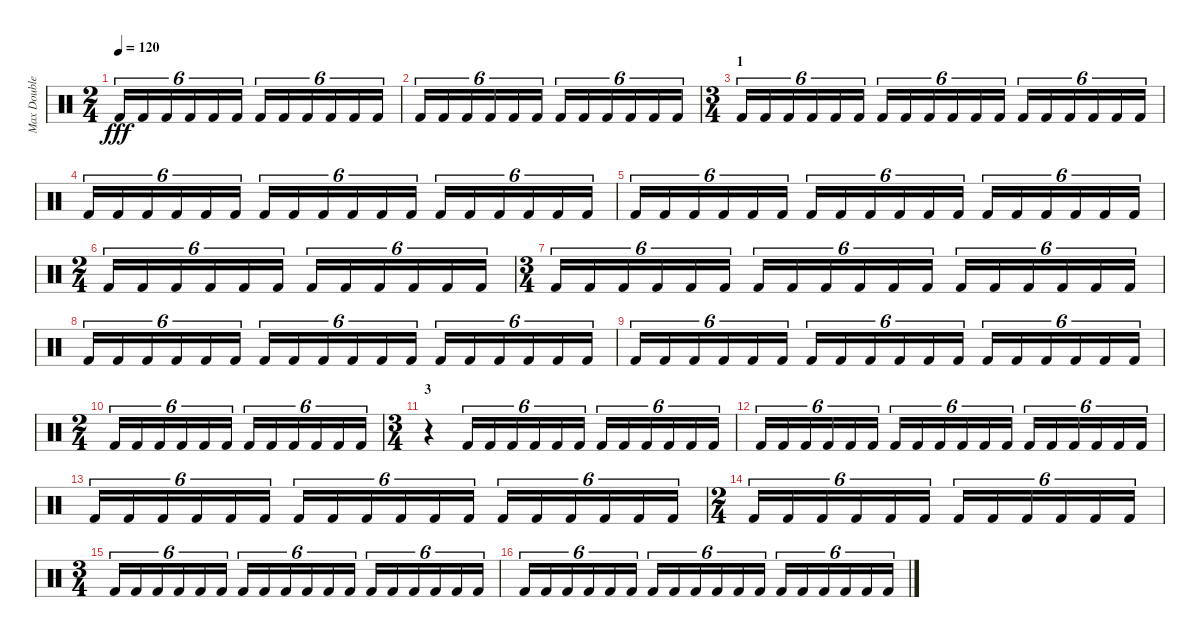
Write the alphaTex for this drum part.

\track ("Max Double Pedal" "Max Double") {instrument percussion}
\staff {score}
\articulation defaults
\ts (2 4)
\tempo 120
\clef neutral
\ks c "Kick (hit) 2".16{tu (6 4) dy fff} "Kick (hit) 2".16{tu (6 4)} "Kick (hit) 2".16{tu (6 4)} "Kick (hit) 2".16{tu (6 4)} "Kick (hit) 2".16{tu (6 4)} "Kick (hit) 2".16{tu (6 4)} "Kick (hit) 2".16{tu (6 4)} "Kick (hit) 2".16{tu (6 4)} "Kick (hit) 2".16{tu (6 4)} "Kick (hit) 2".16{tu (6 4)} "Kick (hit) 2".16{tu (6 4)} "Kick (hit) 2".16{tu (6 4)}
|
"Kick (hit) 2".16{tu (6 4)} "Kick (hit) 2".16{tu (6 4)} "Kick (hit) 2".16{tu (6 4)} "Kick (hit) 2".16{tu (6 4)} "Kick (hit) 2".16{tu (6 4)} "Kick (hit) 2".16{tu (6 4)} "Kick (hit) 2".16{tu (6 4)} "Kick (hit) 2".16{tu (6 4)} "Kick (hit) 2".16{tu (6 4)} "Kick (hit) 2".16{tu (6 4)} "Kick (hit) 2".16{tu (6 4)} "Kick (hit) 2".16{tu (6 4)} |
\ts (3 4)
\section ("" "1")
"Kick (hit) 2".16{tu (6 4)} "Kick (hit) 2".16{tu (6 4)} "Kick (hit) 2".16{tu (6 4)} "Kick (hit) 2".16{tu (6 4)} "Kick (hit) 2".16{tu (6 4)} "Kick (hit) 2".16{tu (6 4)} "Kick (hit) 2".16{tu (6 4)} "Kick (hit) 2".16{tu (6 4)} "Kick (hit) 2".16{tu (6 4)} "Kick (hit) 2".16{tu (6 4)} "Kick (hit) 2".16{tu (6 4)} "Kick (hit) 2".16{tu (6 4)} "Kick (hit) 2".16{tu (6 4)} "Kick (hit) 2".16{tu (6 4)} "Kick (hit) 2".16{tu (6 4)} "Kick (hit) 2".16{tu (6 4)} "Kick (hit) 2".16{tu (6 4)} "Kick (hit) 2".16{tu (6 4)} |
"Kick (hit) 2".16{tu (6 4)} "Kick (hit) 2".16{tu (6 4)} "Kick (hit) 2".16{tu (6 4)} "Kick (hit) 2".16{tu (6 4)} "Kick (hit) 2".16{tu (6 4)} "Kick (hit) 2".16{tu (6 4)} "Kick (hit) 2".16{tu (6 4)} "Kick (hit) 2".16{tu (6 4)} "Kick (hit) 2".16{tu (6 4)} "Kick (hit) 2".16{tu (6 4)} "Kick (hit) 2".16{tu (6 4)} "Kick (hit) 2".16{tu (6 4)} "Kick (hit) 2".16{tu (6 4)} "Kick (hit) 2".16{tu (6 4)} "Kick (hit) 2".16{tu (6 4)} "Kick (hit) 2".16{tu (6 4)} "Kick (hit) 2".16{tu (6 4)} "Kick (hit) 2".16{tu (6 4)} |
"Kick (hit) 2".16{tu (6 4)} "Kick (hit) 2".16{tu (6 4)} "Kick (hit) 2".16{tu (6 4)} "Kick (hit) 2".16{tu (6 4)} "Kick (hit) 2".16{tu (6 4)} "Kick (hit) 2".16{tu (6 4)} "Kick (hit) 2".16{tu (6 4)} "Kick (hit) 2".16{tu (6 4)} "Kick (hit) 2".16{tu (6 4)} "Kick (hit) 2".16{tu (6 4)} "Kick (hit) 2".16{tu (6 4)} "Kick (hit) 2".16{tu (6 4)} "Kick (hit) 2".16{tu (6 4)} "Kick (hit) 2".16{tu (6 4)} "Kick (hit) 2".16{tu (6 4)} "Kick (hit) 2".16{tu (6 4)} "Kick (hit) 2".16{tu (6 4)} "Kick (hit) 2".16{tu (6 4)} |
\ts (2 4)
"Kick (hit) 2".16{tu (6 4)} "Kick (hit) 2".16{tu (6 4)} "Kick (hit) 2".16{tu (6 4)} "Kick (hit) 2".16{tu (6 4)} "Kick (hit) 2".16{tu (6 4)} "Kick (hit) 2".16{tu (6 4)} "Kick (hit) 2".16{tu (6 4)} "Kick (hit) 2".16{tu (6 4)} "Kick (hit) 2".16{tu (6 4)} "Kick (hit) 2".16{tu (6 4)} "Kick (hit) 2".16{tu (6 4)} "Kick (hit) 2".16{tu (6 4)} |
\ts (3 4)
"Kick (hit) 2".16{tu (6 4)} "Kick (hit) 2".16{tu (6 4)} "Kick (hit) 2".16{tu (6 4)} "Kick (hit) 2".16{tu (6 4)} "Kick (hit) 2".16{tu (6 4)} "Kick (hit) 2".16{tu (6 4)} "Kick (hit) 2".16{tu (6 4)} "Kick (hit) 2".16{tu (6 4)} "Kick (hit) 2".16{tu (6 4)} "Kick (hit) 2".16{tu (6 4)} "Kick (hit) 2".16{tu (6 4)} "Kick (hit) 2".16{tu (6 4)} "Kick (hit) 2".16{tu (6 4)} "Kick (hit) 2".16{tu (6 4)} "Kick (hit) 2".16{tu (6 4)} "Kick (hit) 2".16{tu (6 4)} "Kick (hit) 2".16{tu (6 4)} "Kick (hit) 2".16{tu (6 4)} |
"Kick (hit) 2".16{tu (6 4)} "Kick (hit) 2".16{tu (6 4)} "Kick (hit) 2".16{tu (6 4)} "Kick (hit) 2".16{tu (6 4)} "Kick (hit) 2".16{tu (6 4)} "Kick (hit) 2".16{tu (6 4)} "Kick (hit) 2".16{tu (6 4)} "Kick (hit) 2".16{tu (6 4)} "Kick (hit) 2".16{tu (6 4)} "Kick (hit) 2".16{tu (6 4)} "Kick (hit) 2".16{tu (6 4)} "Kick (hit) 2".16{tu (6 4)} "Kick (hit) 2".16{tu (6 4)} "Kick (hit) 2".16{tu (6 4)} "Kick (hit) 2".16{tu (6 4)} "Kick (hit) 2".16{tu (6 4)} "Kick (hit) 2".16{tu (6 4)} "Kick (hit) 2".16{tu (6 4)} |
"Kick (hit) 2".16{tu (6 4)} "Kick (hit) 2".16{tu (6 4)} "Kick (hit) 2".16{tu (6 4)} "Kick (hit) 2".16{tu (6 4)} "Kick (hit) 2".16{tu (6 4)} "Kick (hit) 2".16{tu (6 4)} "Kick (hit) 2".16{tu (6 4)} "Kick (hit) 2".16{tu (6 4)} "Kick (hit) 2".16{tu (6 4)} "Kick (hit) 2".16{tu (6 4)} "Kick (hit) 2".16{tu (6 4)} "Kick (hit) 2".16{tu (6 4)} "Kick (hit) 2".16{tu (6 4)} "Kick (hit) 2".16{tu (6 4)} "Kick (hit) 2".16{tu (6 4)} "Kick (hit) 2".16{tu (6 4)} "Kick (hit) 2".16{tu (6 4)} "Kick (hit) 2".16{tu (6 4)} |
\ts (2 4)
"Kick (hit) 2".16{tu (6 4)} "Kick (hit) 2".16{tu (6 4)} "Kick (hit) 2".16{tu (6 4)} "Kick (hit) 2".16{tu (6 4)} "Kick (hit) 2".16{tu (6 4)} "Kick (hit) 2".16{tu (6 4)} "Kick (hit) 2".16{tu (6 4)} "Kick (hit) 2".16{tu (6 4)} "Kick (hit) 2".16{tu (6 4)} "Kick (hit) 2".16{tu (6 4)} "Kick (hit) 2".16{tu (6 4)} "Kick (hit) 2".16{tu (6 4)} |
\ts (3 4)
\section ("" "3")
r.4 "Kick (hit) 2".16{tu (6 4)} "Kick (hit) 2".16{tu (6 4)} "Kick (hit) 2".16{tu (6 4)} "Kick (hit) 2".16{tu (6 4)} "Kick (hit) 2".16{tu (6 4)} "Kick (hit) 2".16{tu (6 4)} "Kick (hit) 2".16{tu (6 4)} "Kick (hit) 2".16{tu (6 4)} "Kick (hit) 2".16{tu (6 4)} "Kick (hit) 2".16{tu (6 4)} "Kick (hit) 2".16{tu (6 4)} "Kick (hit) 2".16{tu (6 4)} |
"Kick (hit) 2".16{tu (6 4)} "Kick (hit) 2".16{tu (6 4)} "Kick (hit) 2".16{tu (6 4)} "Kick (hit) 2".16{tu (6 4)} "Kick (hit) 2".16{tu (6 4)} "Kick (hit) 2".16{tu (6 4)} "Kick (hit) 2".16{tu (6 4)} "Kick (hit) 2".16{tu (6 4)} "Kick (hit) 2".16{tu (6 4)} "Kick (hit) 2".16{tu (6 4)} "Kick (hit) 2".16{tu (6 4)} "Kick (hit) 2".16{tu (6 4)} "Kick (hit) 2".16{tu (6 4)} "Kick (hit) 2".16{tu (6 4)} "Kick (hit) 2".16{tu (6 4)} "Kick (hit) 2".16{tu (6 4)} "Kick (hit) 2".16{tu (6 4)} "Kick (hit) 2".16{tu (6 4)} |
"Kick (hit) 2".16{tu (6 4)} "Kick (hit) 2".16{tu (6 4)} "Kick (hit) 2".16{tu (6 4)} "Kick (hit) 2".16{tu (6 4)} "Kick (hit) 2".16{tu (6 4)} "Kick (hit) 2".16{tu (6 4)} "Kick (hit) 2".16{tu (6 4)} "Kick (hit) 2".16{tu (6 4)} "Kick (hit) 2".16{tu (6 4)} "Kick (hit) 2".16{tu (6 4)} "Kick (hit) 2".16{tu (6 4)} "Kick (hit) 2".16{tu (6 4)} "Kick (hit) 2".16{tu (6 4)} "Kick (hit) 2".16{tu (6 4)} "Kick (hit) 2".16{tu (6 4)} "Kick (hit) 2".16{tu (6 4)} "Kick (hit) 2".16{tu (6 4)} "Kick (hit) 2".16{tu (6 4)} |
\ts (2 4)
"Kick (hit) 2".16{tu (6 4)} "Kick (hit) 2".16{tu (6 4)} "Kick (hit) 2".16{tu (6 4)} "Kick (hit) 2".16{tu (6 4)} "Kick (hit) 2".16{tu (6 4)} "Kick (hit) 2".16{tu (6 4)} "Kick (hit) 2".16{tu (6 4)} "Kick (hit) 2".16{tu (6 4)} "Kick (hit) 2".16{tu (6 4)} "Kick (hit) 2".16{tu (6 4)} "Kick (hit) 2".16{tu (6 4)} "Kick (hit) 2".16{tu (6 4)} |
\ts (3 4)
"Kick (hit) 2".16{tu (6 4)} "Kick (hit) 2".16{tu (6 4)} "Kick (hit) 2".16{tu (6 4)} "Kick (hit) 2".16{tu (6 4)} "Kick (hit) 2".16{tu (6 4)} "Kick (hit) 2".16{tu (6 4)} "Kick (hit) 2".16{tu (6 4)} "Kick (hit) 2".16{tu (6 4)} "Kick (hit) 2".16{tu (6 4)} "Kick (hit) 2".16{tu (6 4)} "Kick (hit) 2".16{tu (6 4)} "Kick (hit) 2".16{tu (6 4)} "Kick (hit) 2".16{tu (6 4)} "Kick (hit) 2".16{tu (6 4)} "Kick (hit) 2".16{tu (6 4)} "Kick (hit) 2".16{tu (6 4)} "Kick (hit) 2".16{tu (6 4)} "Kick (hit) 2".16{tu (6 4)} |
"Kick (hit) 2".16{tu (6 4)} "Kick (hit) 2".16{tu (6 4)} "Kick (hit) 2".16{tu (6 4)} "Kick (hit) 2".16{tu (6 4)} "Kick (hit) 2".16{tu (6 4)} "Kick (hit) 2".16{tu (6 4)} "Kick (hit) 2".16{tu (6 4)} "Kick (hit) 2".16{tu (6 4)} "Kick (hit) 2".16{tu (6 4)} "Kick (hit) 2".16{tu (6 4)} "Kick (hit) 2".16{tu (6 4)} "Kick (hit) 2".16{tu (6 4)} "Kick (hit) 2".16{tu (6 4)} "Kick (hit) 2".16{tu (6 4)} "Kick (hit) 2".16{tu (6 4)} "Kick (hit) 2".16{tu (6 4)} "Kick (hit) 2".16{tu (6 4)} "Kick (hit) 2".16{tu (6 4)}
